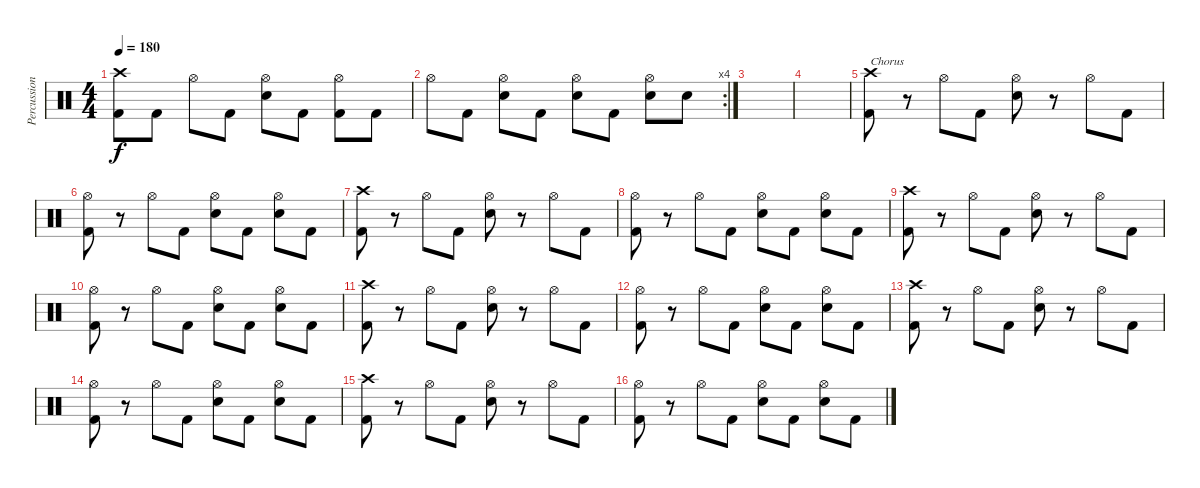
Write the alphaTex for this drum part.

\track ("Percussion" "Percussion") {instrument percussion}
\staff {score}
\articulation defaults
\ts (4 4)
\tempo 180
\clef neutral
\ks c
("Crash high (hit)" "Kick (hit) 2").8{dy f} "Kick (hit) 2".8 "Hi-Hat (open)".8 "Kick (hit) 2".8 ("Hi-Hat (open)" "Electric Snare (hit)").8 "Kick (hit) 2".8 ("Hi-Hat (open)" "Kick (hit) 2").8 "Kick (hit) 2".8 |
\rc 4 "Hi-Hat (open)".8 "Kick (hit) 2".8
("Hi-Hat (open)" "Electric Snare (hit)").8 "Kick (hit) 2".8 ("Hi-Hat (open)" "Electric Snare (hit)").8 "Kick (hit) 2".8 ("Hi-Hat (open)" "Electric Snare (hit)").8 "Electric Snare (hit)".8 |
|
|
("Crash high (hit)" "Kick (hit) 2").8{txt "Chorus"} r.8 "Hi-Hat (open)".8 "Kick (hit) 2".8 ("Hi-Hat (open)" "Electric Snare (hit)").8 r.8 "Hi-Hat (open)".8 "Kick (hit) 2".8 |
("Hi-Hat (open)" "Kick (hit) 2").8 r.8 "Hi-Hat (open)".8 "Kick (hit) 2".8 ("Hi-Hat (open)" "Electric Snare (hit)").8 "Kick (hit) 2".8 ("Hi-Hat (open)" "Electric Snare (hit)").8 "Kick (hit) 2".8 |
("Crash high (hit)" "Kick (hit) 2").8 r.8 "Hi-Hat (open)".8 "Kick (hit) 2".8 ("Hi-Hat (open)" "Electric Snare (hit)").8 r.8 "Hi-Hat (open)".8 "Kick (hit) 2".8 |
("Hi-Hat (open)" "Kick (hit) 2").8 r.8 "Hi-Hat (open)".8 "Kick (hit) 2".8 ("Hi-Hat (open)" "Electric Snare (hit)").8 "Kick (hit) 2".8 ("Hi-Hat (open)" "Electric Snare (hit)").8 "Kick (hit) 2".8 |
("Crash high (hit)" "Kick (hit) 2").8 r.8 "Hi-Hat (open)".8 "Kick (hit) 2".8 ("Hi-Hat (open)" "Electric Snare (hit)").8 r.8 "Hi-Hat (open)".8 "Kick (hit) 2".8 |
("Hi-Hat (open)" "Kick (hit) 2").8 r.8 "Hi-Hat (open)".8 "Kick (hit) 2".8 ("Hi-Hat (open)" "Electric Snare (hit)").8 "Kick (hit) 2".8 ("Hi-Hat (open)" "Electric Snare (hit)").8 "Kick (hit) 2".8 |
("Crash high (hit)" "Kick (hit) 2").8 r.8 "Hi-Hat (open)".8 "Kick (hit) 2".8 ("Hi-Hat (open)" "Electric Snare (hit)").8 r.8 "Hi-Hat (open)".8 "Kick (hit) 2".8 |
("Hi-Hat (open)" "Kick (hit) 2").8 r.8 "Hi-Hat (open)".8 "Kick (hit) 2".8 ("Hi-Hat (open)" "Electric Snare (hit)").8 "Kick (hit) 2".8 ("Hi-Hat (open)" "Electric Snare (hit)").8 "Kick (hit) 2".8 |
("Crash high (hit)" "Kick (hit) 2").8 r.8 "Hi-Hat (open)".8 "Kick (hit) 2".8 ("Hi-Hat (open)" "Electric Snare (hit)").8 r.8 "Hi-Hat (open)".8 "Kick (hit) 2".8 |
("Hi-Hat (open)" "Kick (hit) 2").8 r.8 "Hi-Hat (open)".8 "Kick (hit) 2".8 ("Hi-Hat (open)" "Electric Snare (hit)").8 "Kick (hit) 2".8 ("Hi-Hat (open)" "Electric Snare (hit)").8 "Kick (hit) 2".8 |
("Crash high (hit)" "Kick (hit) 2").8 r.8 "Hi-Hat (open)".8 "Kick (hit) 2".8 ("Hi-Hat (open)" "Electric Snare (hit)").8 r.8 "Hi-Hat (open)".8 "Kick (hit) 2".8 |
("Hi-Hat (open)" "Kick (hit) 2").8 r.8 "Hi-Hat (open)".8 "Kick (hit) 2".8 ("Hi-Hat (open)" "Electric Snare (hit)").8 "Kick (hit) 2".8 ("Hi-Hat (open)" "Electric Snare (hit)").8 "Kick (hit) 2".8
